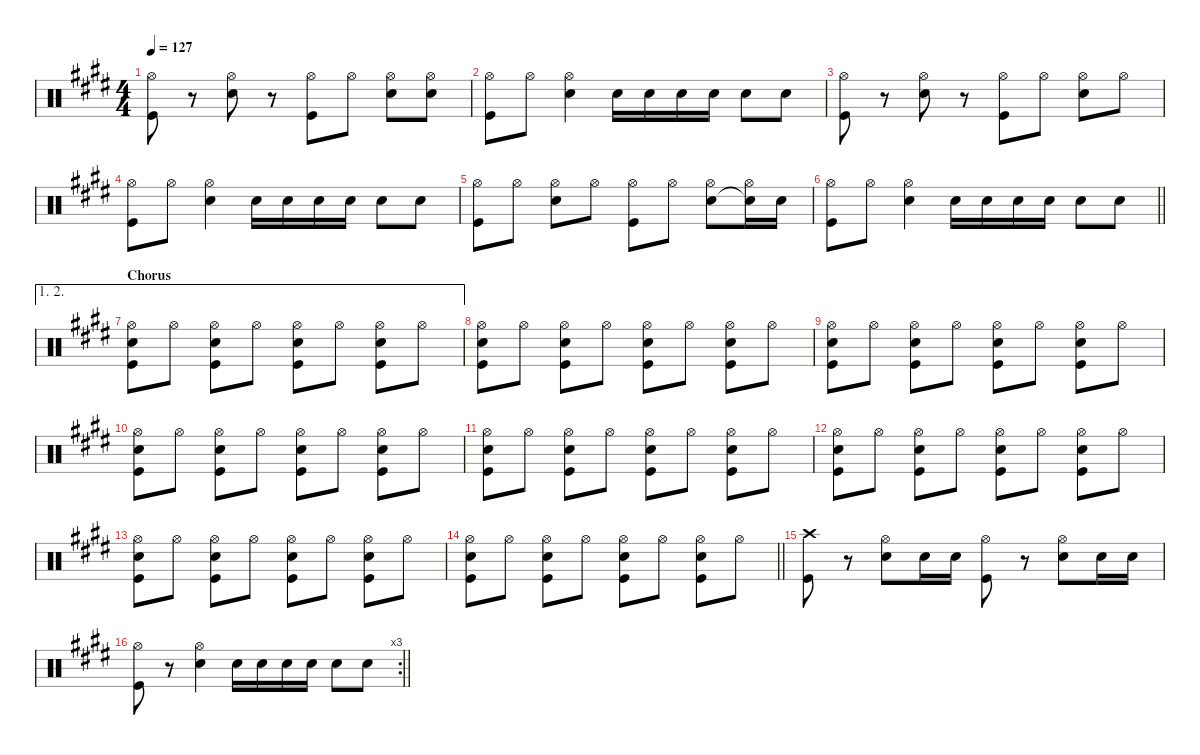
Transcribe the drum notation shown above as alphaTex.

\defaultSystemsLayout 4
\hideDynamics
\bracketExtendMode nobrackets
\singleTrackTrackNamePolicy hidden
\multiTrackTrackNamePolicy hidden
\otherSystemsTrackNameOrientation horizontal
\track ("Charlie Watts" "drm.") {instrument percussion}
\staff {score}
\articulation defaults
\ts (4 4)
\tempo 127
\clef neutral
\ks e
("Hi-Hat (open)"{acc forcenatural} "Kick (hit)"{acc forcenatural}).8{dy f beam Down} r.8{beam Down} ("Hi-Hat (open)"{acc forcenatural} "Snare (hit) 2"{acc forcenatural}).8{beam Down} r.8{beam Down} ("Hi-Hat (open)"{acc forcenatural} "Kick (hit)"{acc forcenatural}).8{beam Down} "Hi-Hat (open)"{acc forcenatural}.8{beam Down} ("Hi-Hat (open)"{acc forcenatural} "Snare (hit) 2"{acc forcenatural}).8{beam Down} ("Hi-Hat (open)"{acc forcenatural} "Snare (hit) 2"{acc forcenatural}).8{beam Down} |
("Hi-Hat (open)"{acc forcenatural} "Kick (hit)"{acc forcenatural}).8{beam Down} "Hi-Hat (open)"{acc forcenatural}.8{beam Down} ("Hi-Hat (open)"{acc forcenatural} "Snare (hit) 2"{acc forcenatural}).4{beam Down} "Snare (hit) 2"{acc forcenatural}.16{beam Down} "Snare (hit) 2"{acc forcenatural}.16{beam Down} "Snare (hit) 2"{acc forcenatural}.16{beam Down} "Snare (hit) 2"{acc forcenatural}.16{beam Down} "Snare (hit) 2"{acc forcenatural}.8{beam Down} "Snare (hit) 2"{acc forcenatural}.8{beam Down} |
("Hi-Hat (open)"{acc forcenatural} "Kick (hit)"{acc forcenatural}).8{beam Down} r.8{beam Down} ("Hi-Hat (open)"{acc forcenatural} "Snare (hit) 2"{acc forcenatural}).8{beam Down} r.8{beam Down} ("Hi-Hat (open)"{acc forcenatural} "Kick (hit)"{acc forcenatural}).8{beam Down} "Hi-Hat (open)"{acc forcenatural}.8{beam Down} ("Hi-Hat (open)"{acc forcenatural} "Snare (hit) 2"{acc forcenatural}).8{beam Down} "Hi-Hat (open)"{acc forcenatural}.8{beam Down} |
("Hi-Hat (open)"{acc forcenatural} "Kick (hit)"{acc forcenatural}).8{beam Down} "Hi-Hat (open)"{acc forcenatural}.8{beam Down} ("Hi-Hat (open)"{acc forcenatural} "Snare (hit) 2"{acc forcenatural}).4{beam Down} "Snare (hit) 2"{acc forcenatural}.16{beam Down} "Snare (hit) 2"{acc forcenatural}.16{beam Down} "Snare (hit) 2"{acc forcenatural}.16{beam Down} "Snare (hit) 2"{acc forcenatural}.16{beam Down} "Snare (hit) 2"{acc forcenatural}.8{beam Down} "Snare (hit) 2"{acc forcenatural}.8{beam Down} |
("Hi-Hat (open)"{acc forcenatural} "Kick (hit)"{acc forcenatural}).8{dy ff beam Down} "Hi-Hat (open)"{acc forcenatural}.8{beam Down} ("Hi-Hat (open)"{acc forcenatural} "Snare (hit) 2"{acc forcenatural}).8{beam Down} "Hi-Hat (open)"{acc forcenatural}.8{beam Down} ("Hi-Hat (open)"{acc forcenatural} "Kick (hit)"{acc forcenatural}).8{beam Down} "Hi-Hat (open)"{acc forcenatural}.8{beam Down} ("Hi-Hat (open)"{acc forcenatural} "Snare (hit) 2"{acc forcenatural}).8{beam Down} ("Hi-Hat (open)"{acc forcenatural} "Snare (hit) 2"{t acc forcenatural}).16{beam Down} "Snare (hit) 2"{acc forcenatural}.16{beam Down} |
\barLineRight lightlight
("Hi-Hat (open)"{acc forcenatural} "Kick (hit)"{acc forcenatural}).8{dy f beam Down} "Hi-Hat (open)"{acc forcenatural}.8{beam Down} ("Hi-Hat (open)"{acc forcenatural} "Snare (hit) 2"{acc forcenatural}).4{beam Down} "Snare (hit) 2"{acc forcenatural}.16{beam Down} "Snare (hit) 2"{acc forcenatural}.16{beam Down} "Snare (hit) 2"{acc forcenatural}.16{beam Down} "Snare (hit) 2"{acc forcenatural}.16{beam Down} "Snare (hit) 2"{acc forcenatural}.8{beam Down} "Snare (hit) 2"{acc forcenatural}.8{beam Down} |
\ae (1 2)
\section ("" "Chorus")
("Hi-Hat (open)"{acc forcenatural} "Snare (hit) 2"{acc forcenatural} "Kick (hit)"{acc forcenatural}).8{dy ff beam Down} "Hi-Hat (open)"{acc forcenatural}.8{beam Down} ("Hi-Hat (open)"{acc forcenatural} "Kick (hit)"{acc forcenatural} "Snare (hit) 2"{acc forcenatural}).8{beam Down} "Hi-Hat (open)"{acc forcenatural}.8{beam Down} ("Hi-Hat (open)"{acc forcenatural} "Snare (hit) 2"{acc forcenatural} "Kick (hit)"{acc forcenatural}).8{beam Down} "Hi-Hat (open)"{acc forcenatural}.8{beam Down} ("Hi-Hat (open)"{acc forcenatural} "Kick (hit)"{acc forcenatural} "Snare (hit) 2"{acc forcenatural}).8{beam Down} "Hi-Hat (open)"{acc forcenatural}.8{beam Down} |
("Hi-Hat (open)"{acc forcenatural} "Snare (hit) 2"{acc forcenatural} "Kick (hit)"{acc forcenatural}).8{beam Down} "Hi-Hat (open)"{acc forcenatural}.8{beam Down} ("Hi-Hat (open)"{acc forcenatural} "Kick (hit)"{acc forcenatural} "Snare (hit) 2"{acc forcenatural}).8{beam Down} "Hi-Hat (open)"{acc forcenatural}.8{beam Down} ("Hi-Hat (open)"{acc forcenatural} "Snare (hit) 2"{acc forcenatural} "Kick (hit)"{acc forcenatural}).8{beam Down} "Hi-Hat (open)"{acc forcenatural}.8{beam Down} ("Hi-Hat (open)"{acc forcenatural} "Kick (hit)"{acc forcenatural} "Snare (hit) 2"{acc forcenatural}).8{beam Down} "Hi-Hat (open)"{acc forcenatural}.8{beam Down} |
("Hi-Hat (open)"{acc forcenatural} "Snare (hit) 2"{acc forcenatural} "Kick (hit)"{acc forcenatural}).8{beam Down} "Hi-Hat (open)"{acc forcenatural}.8{beam Down} ("Hi-Hat (open)"{acc forcenatural} "Kick (hit)"{acc forcenatural} "Snare (hit) 2"{acc forcenatural}).8{beam Down} "Hi-Hat (open)"{acc forcenatural}.8{beam Down} ("Hi-Hat (open)"{acc forcenatural} "Snare (hit) 2"{acc forcenatural} "Kick (hit)"{acc forcenatural}).8{beam Down} "Hi-Hat (open)"{acc forcenatural}.8{beam Down} ("Hi-Hat (open)"{acc forcenatural} "Kick (hit)"{acc forcenatural} "Snare (hit) 2"{acc forcenatural}).8{beam Down} "Hi-Hat (open)"{acc forcenatural}.8{beam Down} |
("Hi-Hat (open)"{acc forcenatural} "Snare (hit) 2"{acc forcenatural} "Kick (hit)"{acc forcenatural}).8{beam Down} "Hi-Hat (open)"{acc forcenatural}.8{beam Down} ("Hi-Hat (open)"{acc forcenatural} "Kick (hit)"{acc forcenatural} "Snare (hit) 2"{acc forcenatural}).8{beam Down} "Hi-Hat (open)"{acc forcenatural}.8{beam Down} ("Hi-Hat (open)"{acc forcenatural} "Snare (hit) 2"{acc forcenatural} "Kick (hit)"{acc forcenatural}).8{beam Down} "Hi-Hat (open)"{acc forcenatural}.8{beam Down} ("Hi-Hat (open)"{acc forcenatural} "Kick (hit)"{acc forcenatural} "Snare (hit) 2"{acc forcenatural}).8{beam Down} "Hi-Hat (open)"{acc forcenatural}.8{beam Down} |
("Hi-Hat (open)"{acc forcenatural} "Snare (hit) 2"{acc forcenatural} "Kick (hit)"{acc forcenatural}).8{beam Down} "Hi-Hat (open)"{acc forcenatural}.8{beam Down} ("Hi-Hat (open)"{acc forcenatural} "Kick (hit)"{acc forcenatural} "Snare (hit) 2"{acc forcenatural}).8{beam Down} "Hi-Hat (open)"{acc forcenatural}.8{beam Down} ("Hi-Hat (open)"{acc forcenatural} "Snare (hit) 2"{acc forcenatural} "Kick (hit)"{acc forcenatural}).8{beam Down} "Hi-Hat (open)"{acc forcenatural}.8{beam Down} ("Hi-Hat (open)"{acc forcenatural} "Kick (hit)"{acc forcenatural} "Snare (hit) 2"{acc forcenatural}).8{beam Down} "Hi-Hat (open)"{acc forcenatural}.8{beam Down} |
("Hi-Hat (open)"{acc forcenatural} "Snare (hit) 2"{acc forcenatural} "Kick (hit)"{acc forcenatural}).8{beam Down} "Hi-Hat (open)"{acc forcenatural}.8{beam Down} ("Hi-Hat (open)"{acc forcenatural} "Kick (hit)"{acc forcenatural} "Snare (hit) 2"{acc forcenatural}).8{beam Down} "Hi-Hat (open)"{acc forcenatural}.8{beam Down} ("Hi-Hat (open)"{acc forcenatural} "Snare (hit) 2"{acc forcenatural} "Kick (hit)"{acc forcenatural}).8{beam Down} "Hi-Hat (open)"{acc forcenatural}.8{beam Down} ("Hi-Hat (open)"{acc forcenatural} "Kick (hit)"{acc forcenatural} "Snare (hit) 2"{acc forcenatural}).8{beam Down} "Hi-Hat (open)"{acc forcenatural}.8{beam Down} |
("Hi-Hat (open)"{acc forcenatural} "Snare (hit) 2"{acc forcenatural} "Kick (hit)"{acc forcenatural}).8{beam Down} "Hi-Hat (open)"{acc forcenatural}.8{beam Down} ("Hi-Hat (open)"{acc forcenatural} "Kick (hit)"{acc forcenatural} "Snare (hit) 2"{acc forcenatural}).8{beam Down} "Hi-Hat (open)"{acc forcenatural}.8{beam Down} ("Hi-Hat (open)"{acc forcenatural} "Snare (hit) 2"{acc forcenatural} "Kick (hit)"{acc forcenatural}).8{beam Down} "Hi-Hat (open)"{acc forcenatural}.8{beam Down} ("Hi-Hat (open)"{acc forcenatural} "Kick (hit)"{acc forcenatural} "Snare (hit) 2"{acc forcenatural}).8{beam Down} "Hi-Hat (open)"{acc forcenatural}.8{beam Down} |
\barLineRight lightlight
("Hi-Hat (open)"{acc forcenatural} "Snare (hit) 2"{acc forcenatural} "Kick (hit)"{acc forcenatural}).8{beam Down} "Hi-Hat (open)"{acc forcenatural}.8{beam Down} ("Hi-Hat (open)"{acc forcenatural} "Kick (hit)"{acc forcenatural} "Snare (hit) 2"{acc forcenatural}).8{beam Down} "Hi-Hat (open)"{acc forcenatural}.8{beam Down} ("Hi-Hat (open)"{acc forcenatural} "Snare (hit) 2"{acc forcenatural} "Kick (hit)"{acc forcenatural}).8{beam Down} "Hi-Hat (open)"{acc forcenatural}.8{beam Down} ("Hi-Hat (open)"{acc forcenatural} "Kick (hit)"{acc forcenatural} "Snare (hit) 2"{acc forcenatural}).8{beam Down} "Hi-Hat (open)"{acc forcenatural}.8{beam Down} |
("Crash high (hit)"{acc forcenatural} "Kick (hit)"{acc forcenatural}).8{dy f beam Down} r.8{beam Down} ("Hi-Hat (open)"{acc forcenatural} "Snare (hit) 2"{acc forcenatural}).8{beam Down} "Snare (hit) 2"{acc forcenatural}.16{dy ff beam Down} "Snare (hit) 2"{acc forcenatural}.16{beam Down} ("Hi-Hat (open)"{acc forcenatural} "Kick (hit)"{acc forcenatural}).8{dy f beam Down} r.8{beam Down} ("Hi-Hat (open)"{acc forcenatural} "Snare (hit) 2"{acc forcenatural}).8{beam Down} "Snare (hit) 2"{acc forcenatural}.16{dy ff beam Down} "Snare (hit) 2"{acc forcenatural}.16{beam Down} |
\rc 3
\barLineRight lightlight
("Hi-Hat (open)"{acc forcenatural} "Kick (hit)"{acc forcenatural}).8{dy f beam Down} r.8{beam Down} ("Hi-Hat (open)"{acc forcenatural} "Snare (hit) 2"{acc forcenatural}).4{beam Down} "Snare (hit) 2"{acc forcenatural}.16{beam Down} "Snare (hit) 2"{acc forcenatural}.16{beam Down} "Snare (hit) 2"{acc forcenatural}.16{beam Down} "Snare (hit) 2"{acc forcenatural}.16{beam Down} "Snare (hit) 2"{acc forcenatural}.8{beam Down} "Snare (hit) 2"{acc forcenatural}.8{beam Down}
